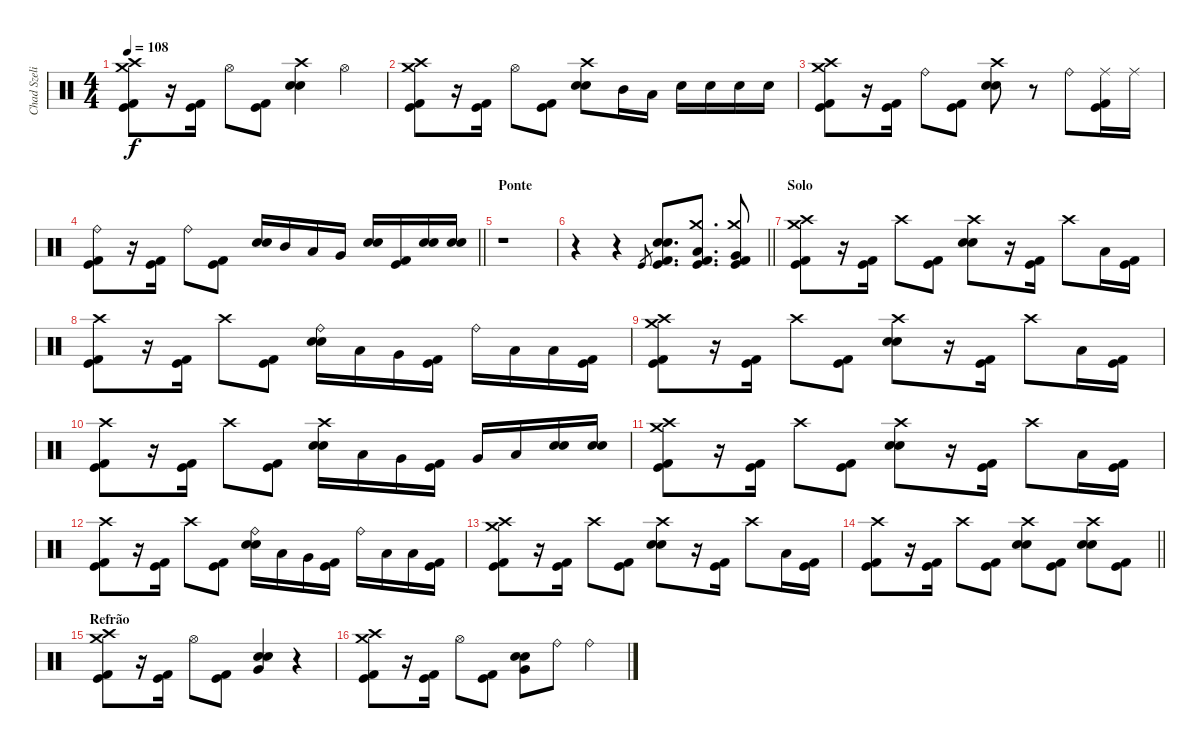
\track ("Chad Szeliga" "Chad Szeli") {instrument percussion}
\staff {score}
\articulation defaults
\ts (4 4)
\tempo 108
\clef neutral
\ks c
("Crash high (hit)" "Kick (hit) 2" "Kick (hit)" "Crash medium (hit)").8{dy f} r.16 ("Kick (hit) 2" "Kick (hit)").16{beam Down} "Hi-Hat (open)".8 ("Kick (hit) 2" "Kick (hit)").8 ("Crash high (hit)" "Snare (hit) 2" "Snare (hit) 2").4 "Hi-Hat (open)".4 |
("Crash high (hit)" "Kick (hit) 2" "Kick (hit)" "Crash medium (hit)").8 r.16 ("Kick (hit) 2" "Kick (hit)").16{beam Down} "Hi-Hat (open)".8 ("Kick (hit) 2" "Kick (hit)").8 ("Crash high (hit)" "Snare (hit) 2" "Snare (hit) 2").8 "Mid Tom (hit)".16 "Low Tom (hit)".16 "Snare (hit) 2".16 "Snare (hit) 2".16 "Snare (hit) 2".16 "Snare (hit) 2".16 |
("Crash high (hit)" "Kick (hit) 2" "Kick (hit)" "Crash medium (hit)").8 r.16 ("Kick (hit) 2" "Kick (hit)").16{beam Down} "Ride (bell)".8 ("Kick (hit) 2" "Kick (hit)").8 ("Crash high (hit)" "Snare (hit) 2" "Snare (hit) 2").8 r.8 "Ride (bell)".8 ("Ride (middle)" "Kick (hit) 2" "Kick (hit)").16 "Ride (middle)".16 |
\barLineRight lightlight
("Ride (bell)" "Kick (hit) 2" "Kick (hit)").8 r.16 ("Kick (hit) 2" "Kick (hit)").16{beam Down} "Ride (bell)".8 ("Kick (hit) 2" "Kick (hit)").8 ("Snare (hit) 2" "Snare (hit) 2").16 "Mid Tom (hit)".16 "Low Tom (hit)".16 "Very Low Tom (hit)".16 ("Snare (hit) 2" "Snare (hit) 2").16 ("Kick (hit) 2" "Kick (hit)").16 ("Snare (hit) 2" "Snare (hit) 2").16 ("Snare (hit) 2" "Snare (hit) 2").16 |
\section ("" "Ponte")
r.1 |
\barLineRight lightlight
r.4 r.4 "Kick (hit)".8{gr} ("Kick (hit) 2" "Kick (hit)" "Snare (hit) 2" "Snare (hit) 2").8{d} ("Crash medium (hit)" "Kick (hit) 2" "Kick (hit)" "Low Tom (hit)").8{d} ("Crash medium (hit)" "Kick (hit) 2" "Kick (hit)" "Very Low Tom (hit)").8 |
\section ("" "Solo")
("Crash high (hit)" "Kick (hit) 2" "Kick (hit)" "Crash medium (hit)").8 r.16 ("Kick (hit) 2" "Kick (hit)").16{beam Down} "Crash high (hit)".8 ("Kick (hit) 2" "Kick (hit)").8 ("Crash high (hit)" "Snare (hit) 2" "Snare (hit) 2").8 r.16 ("Kick (hit) 2" "Kick (hit)").16{beam Down} "Crash high (hit)".8 "Low Tom (hit)".16 ("Kick (hit) 2" "Kick (hit)").16 |
("Crash high (hit)" "Kick (hit) 2" "Kick (hit)").8 r.16 ("Kick (hit) 2" "Kick (hit)").16{beam Down} "Crash high (hit)".8 ("Kick (hit) 2" "Kick (hit)").8 ("Ride (bell)" "Snare (hit) 2" "Snare (hit) 2").16 "Low Tom (hit)".16 "Very Low Tom (hit)".16 ("Kick (hit) 2" "Kick (hit)").16 "Ride (bell)".16 "Low Tom (hit)".16 "Low Tom (hit)".16 ("Kick (hit) 2" "Kick (hit)").16 |
("Crash high (hit)" "Kick (hit) 2" "Kick (hit)" "Crash medium (hit)").8 r.16 ("Kick (hit) 2" "Kick (hit)").16{beam Down} "Crash high (hit)".8 ("Kick (hit) 2" "Kick (hit)").8 ("Crash high (hit)" "Snare (hit) 2" "Snare (hit) 2").8 r.16 ("Kick (hit) 2" "Kick (hit)").16{beam Down} "Crash high (hit)".8 "Low Tom (hit)".16 ("Kick (hit) 2" "Kick (hit)").16 |
("Crash high (hit)" "Kick (hit) 2" "Kick (hit)").8 r.16 ("Kick (hit) 2" "Kick (hit)").16{beam Down} "Crash high (hit)".8 ("Kick (hit) 2" "Kick (hit)").8 ("Crash high (hit)" "Snare (hit) 2" "Snare (hit) 2").16 "Low Tom (hit)".16 "Very Low Tom (hit)".16 ("Kick (hit) 2" "Kick (hit)").16 "Very Low Tom (hit)".16 "Low Tom (hit)".16 ("Snare (hit) 2" "Snare (hit) 2").16 ("Snare (hit) 2" "Snare (hit) 2").16 |
("Crash high (hit)" "Kick (hit) 2" "Kick (hit)" "Crash medium (hit)").8 r.16 ("Kick (hit) 2" "Kick (hit)").16{beam Down} "Crash high (hit)".8 ("Kick (hit) 2" "Kick (hit)").8 ("Crash high (hit)" "Snare (hit) 2" "Snare (hit) 2").8 r.16 ("Kick (hit) 2" "Kick (hit)").16{beam Down} "Crash high (hit)".8 "Low Tom (hit)".16 ("Kick (hit) 2" "Kick (hit)").16 |
("Crash high (hit)" "Kick (hit) 2" "Kick (hit)").8 r.16 ("Kick (hit) 2" "Kick (hit)").16{beam Down} "Crash high (hit)".8 ("Kick (hit) 2" "Kick (hit)").8 ("Ride (bell)" "Snare (hit) 2" "Snare (hit) 2").16 "Low Tom (hit)".16 "Very Low Tom (hit)".16 ("Kick (hit) 2" "Kick (hit)").16 "Ride (bell)".16 "Low Tom (hit)".16 "Low Tom (hit)".16 ("Kick (hit) 2" "Kick (hit)").16 |
("Crash high (hit)" "Kick (hit) 2" "Kick (hit)" "Crash medium (hit)").8 r.16 ("Kick (hit) 2" "Kick (hit)").16{beam Down} "Crash high (hit)".8 ("Kick (hit) 2" "Kick (hit)").8 ("Crash high (hit)" "Snare (hit) 2" "Snare (hit) 2").8 r.16 ("Kick (hit) 2" "Kick (hit)").16{beam Down} "Crash high (hit)".8 "Low Tom (hit)".16 ("Kick (hit) 2" "Kick (hit)").16 |
\barLineRight lightlight
("Crash high (hit)" "Kick (hit) 2" "Kick (hit)").8 r.16 ("Kick (hit) 2" "Kick (hit)").16{beam Down} "Crash high (hit)".8 ("Kick (hit) 2" "Kick (hit)").8 ("Crash high (hit)" "Snare (hit) 2" "Snare (hit) 2").8 ("Kick (hit) 2" "Kick (hit)").8 ("Crash high (hit)" "Snare (hit) 2" "Snare (hit) 2").8 ("Kick (hit) 2" "Kick (hit)").8 |
\section ("" "Refrão")
("Crash high (hit)" "Kick (hit) 2" "Kick (hit)" "Crash medium (hit)").8 r.16 ("Kick (hit) 2" "Kick (hit)").16{beam Down} "Hi-Hat (open)".8 ("Kick (hit) 2" "Kick (hit)").8 ("Snare (hit) 2" "Snare (hit) 2" "Very Low Tom (hit)").4 r.4 |
("Crash high (hit)" "Kick (hit) 2" "Kick (hit)" "Crash medium (hit)").8 r.16 ("Kick (hit) 2" "Kick (hit)").16{beam Down} "Hi-Hat (open)".8 ("Kick (hit) 2" "Kick (hit)").8 ("Snare (hit) 2" "Snare (hit) 2" "Very Low Tom (hit)").8 "Ride (bell)".8 "Ride (bell)".4
